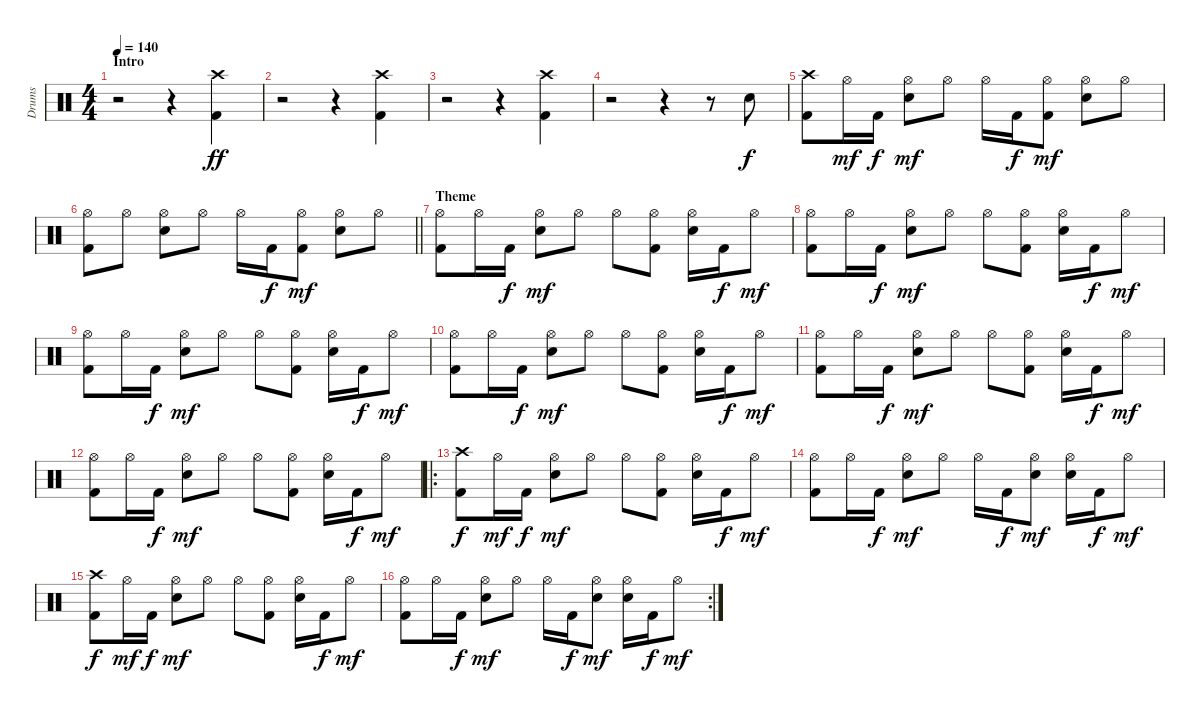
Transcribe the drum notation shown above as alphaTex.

\track ("Drums" "Drums") {instrument percussion}
\staff {score}
\articulation defaults
\ts (4 4)
\section ("" "Intro")
\tempo 140
\clef neutral
\ks c
r.2{dy ff} r.4 ("Crash high (hit)" "Kick (hit) 2").4 |
r.2 r.4 ("Crash high (hit)" "Kick (hit) 2").4 |
r.2 r.4 ("Crash high (hit)" "Kick (hit) 2").4 |
r.2 r.4 r.8 "Electric Snare (hit)".8{dy f} |
("Crash high (hit)" "Kick (hit) 2").8 "Hi-Hat (open)".16{dy mf} "Kick (hit) 2".16{dy f} ("Hi-Hat (open)" "Electric Snare (hit)").8{dy mf} "Hi-Hat (open)".8 "Hi-Hat (open)".16 "Kick (hit) 2".16{dy f} ("Hi-Hat (open)" "Kick (hit) 2").8{dy mf} ("Hi-Hat (open)" "Electric Snare (hit)").8 "Hi-Hat (open)".8 |
\barLineRight lightlight
("Hi-Hat (open)" "Kick (hit) 2").8 "Hi-Hat (open)".8 ("Hi-Hat (open)" "Electric Snare (hit)").8 "Hi-Hat (open)".8 "Hi-Hat (open)".16 "Kick (hit) 2".16{dy f} ("Hi-Hat (open)" "Kick (hit) 2").8{dy mf} ("Hi-Hat (open)" "Electric Snare (hit)").8 "Hi-Hat (open)".8 |
\section ("" "Theme")
("Hi-Hat (open)" "Kick (hit) 2").8 "Hi-Hat (open)".16 "Kick (hit) 2".16{dy f} ("Hi-Hat (open)" "Electric Snare (hit)").8{dy mf} "Hi-Hat (open)".8 "Hi-Hat (open)".8 ("Hi-Hat (open)" "Kick (hit) 2").8 ("Hi-Hat (open)" "Electric Snare (hit)").16 "Kick (hit) 2".16{dy f} "Hi-Hat (open)".8{dy mf} |
("Hi-Hat (open)" "Kick (hit) 2").8 "Hi-Hat (open)".16 "Kick (hit) 2".16{dy f} ("Hi-Hat (open)" "Electric Snare (hit)").8{dy mf} "Hi-Hat (open)".8 "Hi-Hat (open)".8 ("Hi-Hat (open)" "Kick (hit) 2").8 ("Hi-Hat (open)" "Electric Snare (hit)").16 "Kick (hit) 2".16{dy f} "Hi-Hat (open)".8{dy mf} |
("Hi-Hat (open)" "Kick (hit) 2").8 "Hi-Hat (open)".16 "Kick (hit) 2".16{dy f} ("Hi-Hat (open)" "Electric Snare (hit)").8{dy mf} "Hi-Hat (open)".8 "Hi-Hat (open)".8 ("Hi-Hat (open)" "Kick (hit) 2").8 ("Hi-Hat (open)" "Electric Snare (hit)").16 "Kick (hit) 2".16{dy f} "Hi-Hat (open)".8{dy mf} |
("Hi-Hat (open)" "Kick (hit) 2").8 "Hi-Hat (open)".16 "Kick (hit) 2".16{dy f} ("Hi-Hat (open)" "Electric Snare (hit)").8{dy mf} "Hi-Hat (open)".8 "Hi-Hat (open)".8 ("Hi-Hat (open)" "Kick (hit) 2").8 ("Hi-Hat (open)" "Electric Snare (hit)").16 "Kick (hit) 2".16{dy f} "Hi-Hat (open)".8{dy mf} |
("Hi-Hat (open)" "Kick (hit) 2").8 "Hi-Hat (open)".16 "Kick (hit) 2".16{dy f} ("Hi-Hat (open)" "Electric Snare (hit)").8{dy mf} "Hi-Hat (open)".8 "Hi-Hat (open)".8 ("Hi-Hat (open)" "Kick (hit) 2").8 ("Hi-Hat (open)" "Electric Snare (hit)").16 "Kick (hit) 2".16{dy f} "Hi-Hat (open)".8{dy mf} |
("Hi-Hat (open)" "Kick (hit) 2").8 "Hi-Hat (open)".16 "Kick (hit) 2".16{dy f} ("Hi-Hat (open)" "Electric Snare (hit)").8{dy mf} "Hi-Hat (open)".8 "Hi-Hat (open)".8 ("Hi-Hat (open)" "Kick (hit) 2").8 ("Hi-Hat (open)" "Electric Snare (hit)").16 "Kick (hit) 2".16{dy f} "Hi-Hat (open)".8{dy mf} |
\ro
("Crash high (hit)" "Kick (hit) 2").8{dy f} "Hi-Hat (open)".16{dy mf} "Kick (hit) 2".16{dy f} ("Hi-Hat (open)" "Electric Snare (hit)").8{dy mf} "Hi-Hat (open)".8 "Hi-Hat (open)".8 ("Hi-Hat (open)" "Kick (hit) 2").8 ("Hi-Hat (open)" "Electric Snare (hit)").16 "Kick (hit) 2".16{dy f} "Hi-Hat (open)".8{dy mf} |
("Hi-Hat (open)" "Kick (hit) 2").8 "Hi-Hat (open)".16 "Kick (hit) 2".16{dy f} ("Hi-Hat (open)" "Electric Snare (hit)").8{dy mf} "Hi-Hat (open)".8 "Hi-Hat (open)".16 "Kick (hit) 2".16{dy f} ("Hi-Hat (open)" "Electric Snare (hit)").8{dy mf} ("Hi-Hat (open)" "Electric Snare (hit)").16 "Kick (hit) 2".16{dy f} "Hi-Hat (open)".8{dy mf} |
("Crash high (hit)" "Kick (hit) 2").8{dy f} "Hi-Hat (open)".16{dy mf} "Kick (hit) 2".16{dy f} ("Hi-Hat (open)" "Electric Snare (hit)").8{dy mf} "Hi-Hat (open)".8 "Hi-Hat (open)".8 ("Hi-Hat (open)" "Kick (hit) 2").8 ("Hi-Hat (open)" "Electric Snare (hit)").16 "Kick (hit) 2".16{dy f} "Hi-Hat (open)".8{dy mf} |
\rc 2
("Hi-Hat (open)" "Kick (hit) 2").8 "Hi-Hat (open)".16 "Kick (hit) 2".16{dy f} ("Hi-Hat (open)" "Electric Snare (hit)").8{dy mf} "Hi-Hat (open)".8 "Hi-Hat (open)".16 "Kick (hit) 2".16{dy f} ("Hi-Hat (open)" "Electric Snare (hit)").8{dy mf} ("Hi-Hat (open)" "Electric Snare (hit)").16 "Kick (hit) 2".16{dy f} "Hi-Hat (open)".8{dy mf}
